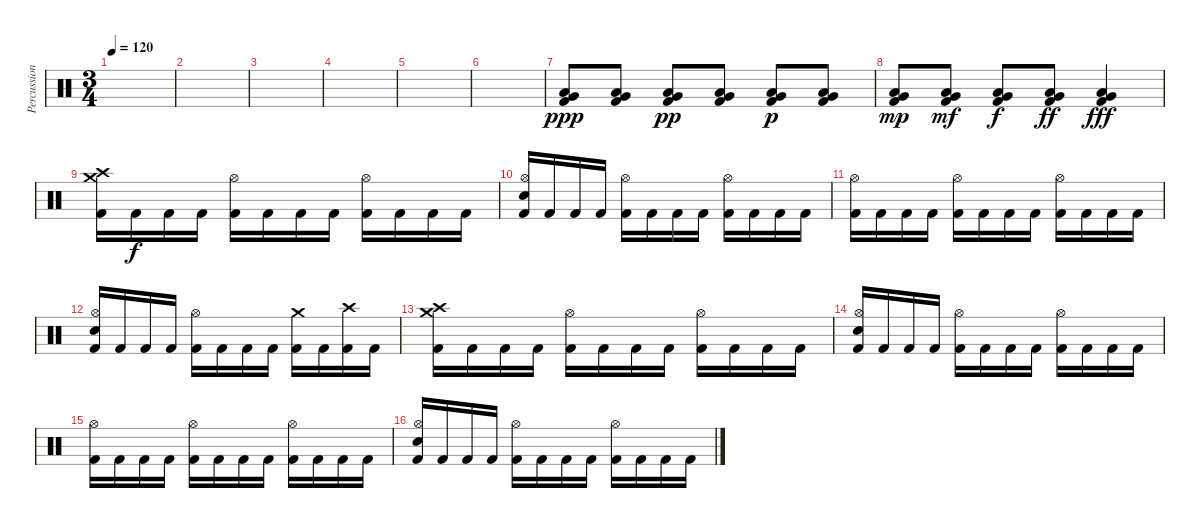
\track ("Percussion" "Percussion") {instrument percussion}
\staff {score}
\articulation defaults
\ts (3 4)
\tempo 120
\clef neutral
\ks c
|
|
|
|
|
|
("Low Tom (hit)" "Very Low Tom (hit)" "Kick (hit) 2").8{dy ppp} ("Low Tom (hit)" "Very Low Tom (hit)" "Kick (hit) 2").8 ("Low Tom (hit)" "Very Low Tom (hit)" "Kick (hit) 2").8{dy pp} ("Low Tom (hit)" "Very Low Tom (hit)" "Kick (hit) 2").8 ("Low Tom (hit)" "Very Low Tom (hit)" "Kick (hit) 2").8{dy p} ("Low Tom (hit)" "Very Low Tom (hit)" "Kick (hit) 2").8 |
("Low Tom (hit)" "Very Low Tom (hit)" "Kick (hit) 2").8{dy mp} ("Low Tom (hit)" "Very Low Tom (hit)" "Kick (hit) 2").8{dy mf} ("Low Tom (hit)" "Very Low Tom (hit)" "Kick (hit) 2").8{dy f} ("Low Tom (hit)" "Very Low Tom (hit)" "Kick (hit) 2").8{dy ff} ("Low Tom (hit)" "Very Low Tom (hit)" "Kick (hit) 2").4{dy fff} |
("Crash high (hit)" "Crash medium (hit)" "Kick (hit) 2").16 "Kick (hit) 2".16{dy f} "Kick (hit) 2".16 "Kick (hit) 2".16 ("Hi-Hat (open)" "Kick (hit) 2").16 "Kick (hit) 2".16 "Kick (hit) 2".16 "Kick (hit) 2".16 ("Hi-Hat (open)" "Kick (hit) 2").16 "Kick (hit) 2".16 "Kick (hit) 2".16 "Kick (hit) 2".16 |
("Hi-Hat (open)" "Electric Snare (hit)" "Kick (hit) 2").16 "Kick (hit) 2".16 "Kick (hit) 2".16 "Kick (hit) 2".16 ("Hi-Hat (open)" "Kick (hit) 2").16 "Kick (hit) 2".16 "Kick (hit) 2".16 "Kick (hit) 2".16 ("Hi-Hat (open)" "Kick (hit) 2").16 "Kick (hit) 2".16 "Kick (hit) 2".16 "Kick (hit) 2".16 |
("Hi-Hat (open)" "Kick (hit) 2").16 "Kick (hit) 2".16 "Kick (hit) 2".16 "Kick (hit) 2".16 ("Hi-Hat (open)" "Kick (hit) 2").16 "Kick (hit) 2".16 "Kick (hit) 2".16 "Kick (hit) 2".16 ("Hi-Hat (open)" "Kick (hit) 2").16 "Kick (hit) 2".16 "Kick (hit) 2".16 "Kick (hit) 2".16 |
("Hi-Hat (open)" "Electric Snare (hit)" "Kick (hit) 2").16 "Kick (hit) 2".16 "Kick (hit) 2".16 "Kick (hit) 2".16 ("Hi-Hat (open)" "Kick (hit) 2").16 "Kick (hit) 2".16 "Kick (hit) 2".16 "Kick (hit) 2".16 ("Crash medium (hit)" "Kick (hit) 2").16 "Kick (hit) 2".16 ("Crash high (hit)" "Kick (hit) 2").16 "Kick (hit) 2".16 |
("Crash medium (hit)" "Crash high (hit)" "Kick (hit) 2").16 "Kick (hit) 2".16 "Kick (hit) 2".16 "Kick (hit) 2".16 ("Hi-Hat (open)" "Kick (hit) 2").16 "Kick (hit) 2".16 "Kick (hit) 2".16 "Kick (hit) 2".16 ("Hi-Hat (open)" "Kick (hit) 2").16 "Kick (hit) 2".16 "Kick (hit) 2".16 "Kick (hit) 2".16 |
("Hi-Hat (open)" "Electric Snare (hit)" "Kick (hit) 2").16 "Kick (hit) 2".16 "Kick (hit) 2".16 "Kick (hit) 2".16 ("Hi-Hat (open)" "Kick (hit) 2").16 "Kick (hit) 2".16 "Kick (hit) 2".16 "Kick (hit) 2".16 ("Hi-Hat (open)" "Kick (hit) 2").16 "Kick (hit) 2".16 "Kick (hit) 2".16 "Kick (hit) 2".16 |
("Hi-Hat (open)" "Kick (hit) 2").16 "Kick (hit) 2".16 "Kick (hit) 2".16 "Kick (hit) 2".16 ("Hi-Hat (open)" "Kick (hit) 2").16 "Kick (hit) 2".16 "Kick (hit) 2".16 "Kick (hit) 2".16 ("Hi-Hat (open)" "Kick (hit) 2").16 "Kick (hit) 2".16 "Kick (hit) 2".16 "Kick (hit) 2".16 |
("Hi-Hat (open)" "Electric Snare (hit)" "Kick (hit) 2").16 "Kick (hit) 2".16 "Kick (hit) 2".16 "Kick (hit) 2".16 ("Hi-Hat (open)" "Kick (hit) 2").16 "Kick (hit) 2".16 "Kick (hit) 2".16 "Kick (hit) 2".16 ("Hi-Hat (open)" "Kick (hit) 2").16 "Kick (hit) 2".16 "Kick (hit) 2".16 "Kick (hit) 2".16
